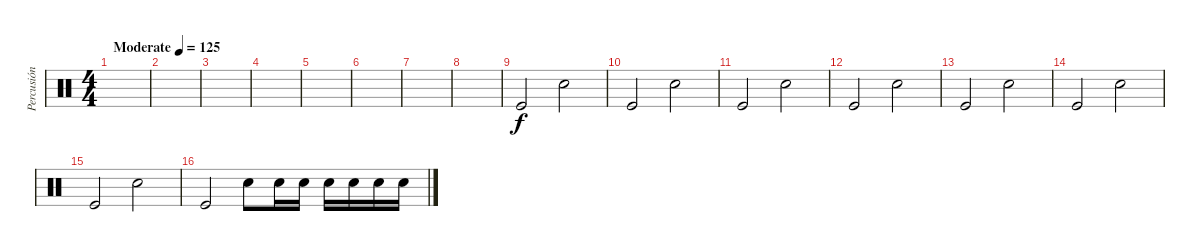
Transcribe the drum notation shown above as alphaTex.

\track ("Percusión" "Percusión") {instrument percussion}
\staff {score}
\articulation defaults
\ts (4 4)
\tempo (125 "Moderate")
\clef neutral
\ks c
|
|
|
|
|
|
|
|
"Kick (hit)".2 "Electric Snare (hit)".2 |
"Kick (hit)".2 "Electric Snare (hit)".2 |
"Kick (hit)".2 "Electric Snare (hit)".2 |
"Kick (hit)".2 "Electric Snare (hit)".2 |
"Kick (hit)".2 "Electric Snare (hit)".2 |
"Kick (hit)".2 "Electric Snare (hit)".2 |
"Kick (hit)".2 "Electric Snare (hit)".2 |
"Kick (hit)".2 "Electric Snare (hit)".8 "Electric Snare (hit)".16 "Electric Snare (hit)".16 "Electric Snare (hit)".16 "Electric Snare (hit)".16 "Electric Snare (hit)".16 "Electric Snare (hit)".16
